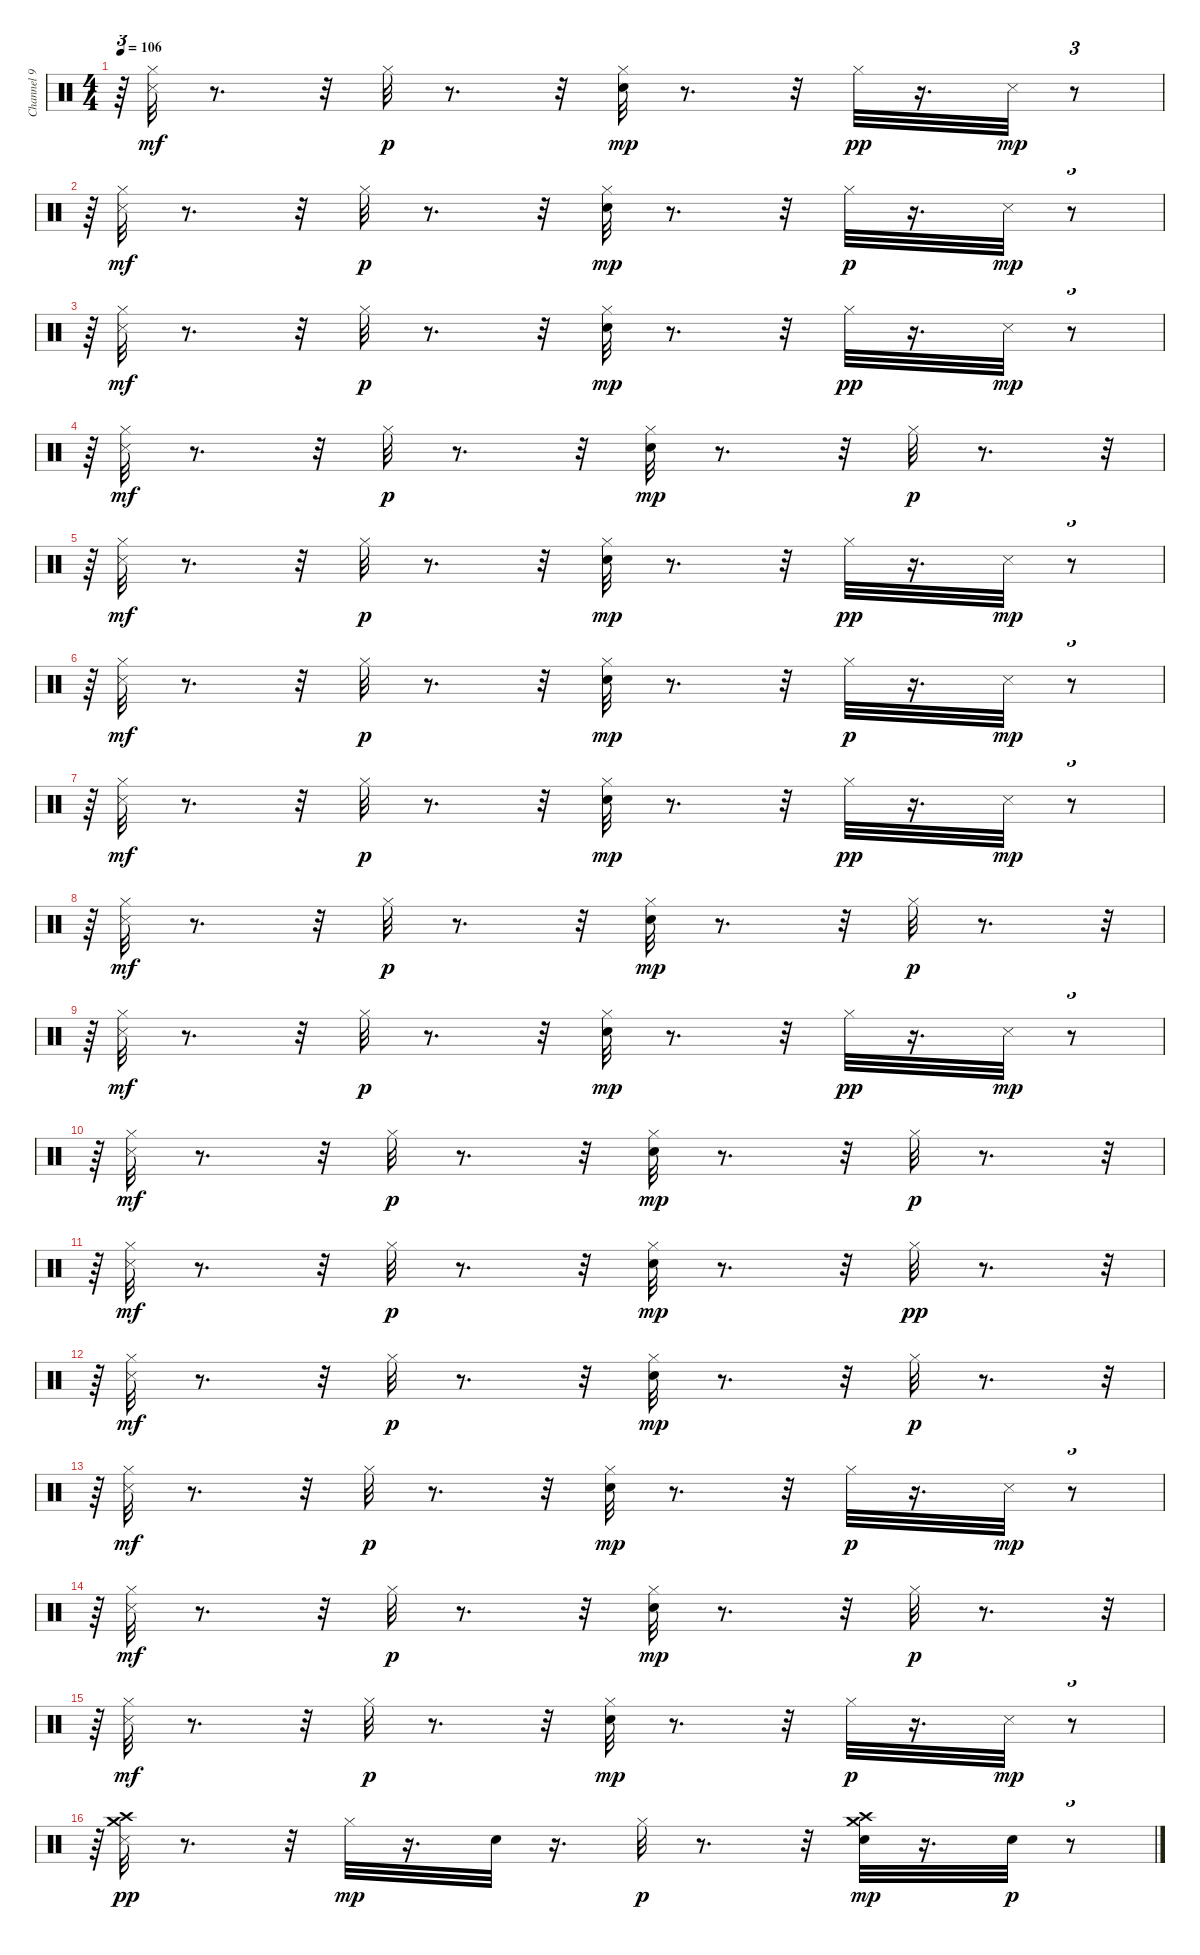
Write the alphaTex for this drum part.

\track ("Channel 9" "Channel 9") {instrument percussion}
\staff {score}
\articulation defaults
\ts (4 4)
\tempo 106
\clef neutral
\ks c
r.64{tu (3 2) dy pp} ("Hi-Hat (closed)" "Metronome (hit)").32{dy mf} r.8{d} r.32 "Hi-Hat (closed)".32{dy p} r.8{d} r.32 ("Hi-Hat (closed)" "Electric Snare (hit)").32{dy mp} r.8{d} r.32 "Hi-Hat (closed)".32{dy pp} r.16{d} "Metronome (hit)".32{dy mp} r.8{tu (3 2)} |
r.64{tu (3 2)} ("Hi-Hat (closed)" "Metronome (hit)").32{dy mf} r.8{d} r.32 "Hi-Hat (closed)".32{dy p} r.8{d} r.32 ("Hi-Hat (closed)" "Electric Snare (hit)").32{dy mp} r.8{d} r.32 "Hi-Hat (closed)".32{dy p} r.16{d} "Metronome (hit)".32{dy mp} r.8{tu (3 2)} |
r.64{tu (3 2)} ("Hi-Hat (closed)" "Metronome (hit)").32{dy mf} r.8{d} r.32 "Hi-Hat (closed)".32{dy p} r.8{d} r.32 ("Hi-Hat (closed)" "Electric Snare (hit)").32{dy mp} r.8{d} r.32 "Hi-Hat (closed)".32{dy pp} r.16{d} "Metronome (hit)".32{dy mp} r.8{tu (3 2)} |
r.64{tu (3 2)} ("Hi-Hat (closed)" "Metronome (hit)").32{dy mf} r.8{d} r.32 "Hi-Hat (closed)".32{dy p} r.8{d} r.32 ("Hi-Hat (closed)" "Electric Snare (hit)").32{dy mp} r.8{d} r.32 "Hi-Hat (closed)".32{dy p} r.8{d} r.32{tu (3 2)} |
r.64{tu (3 2)} ("Hi-Hat (closed)" "Metronome (hit)").32{dy mf} r.8{d} r.32 "Hi-Hat (closed)".32{dy p} r.8{d} r.32 ("Hi-Hat (closed)" "Electric Snare (hit)").32{dy mp} r.8{d} r.32 "Hi-Hat (closed)".32{dy pp} r.16{d} "Metronome (hit)".32{dy mp} r.8{tu (3 2)} |
r.64{tu (3 2)} ("Hi-Hat (closed)" "Metronome (hit)").32{dy mf} r.8{d} r.32 "Hi-Hat (closed)".32{dy p} r.8{d} r.32 ("Hi-Hat (closed)" "Electric Snare (hit)").32{dy mp} r.8{d} r.32 "Hi-Hat (closed)".32{dy p} r.16{d} "Metronome (hit)".32{dy mp} r.8{tu (3 2)} |
r.64{tu (3 2)} ("Hi-Hat (closed)" "Metronome (hit)").32{dy mf} r.8{d} r.32 "Hi-Hat (closed)".32{dy p} r.8{d} r.32 ("Hi-Hat (closed)" "Electric Snare (hit)").32{dy mp} r.8{d} r.32 "Hi-Hat (closed)".32{dy pp} r.16{d} "Metronome (hit)".32{dy mp} r.8{tu (3 2)} |
r.64{tu (3 2)} ("Hi-Hat (closed)" "Metronome (hit)").32{dy mf} r.8{d} r.32 "Hi-Hat (closed)".32{dy p} r.8{d} r.32 ("Hi-Hat (closed)" "Electric Snare (hit)").32{dy mp} r.8{d} r.32 "Hi-Hat (closed)".32{dy p} r.8{d} r.32{tu (3 2)} |
r.64{tu (3 2)} ("Hi-Hat (closed)" "Metronome (hit)").32{dy mf} r.8{d} r.32 "Hi-Hat (closed)".32{dy p} r.8{d} r.32 ("Hi-Hat (closed)" "Electric Snare (hit)").32{dy mp} r.8{d} r.32 "Hi-Hat (closed)".32{dy pp} r.16{d} "Metronome (hit)".32{dy mp} r.8{tu (3 2)} |
r.64{tu (3 2)} ("Hi-Hat (closed)" "Metronome (hit)").32{dy mf} r.8{d} r.32 "Hi-Hat (closed)".32{dy p} r.8{d} r.32 ("Hi-Hat (closed)" "Electric Snare (hit)").32{dy mp} r.8{d} r.32 "Hi-Hat (closed)".32{dy p} r.8{d} r.32{tu (3 2)} |
r.64{tu (3 2)} ("Hi-Hat (closed)" "Metronome (hit)").32{dy mf} r.8{d} r.32 "Hi-Hat (closed)".32{dy p} r.8{d} r.32 ("Hi-Hat (closed)" "Electric Snare (hit)").32{dy mp} r.8{d} r.32 "Hi-Hat (closed)".32{dy pp} r.8{d} r.32{tu (3 2)} |
r.64{tu (3 2)} ("Hi-Hat (closed)" "Metronome (hit)").32{dy mf} r.8{d} r.32 "Hi-Hat (closed)".32{dy p} r.8{d} r.32 ("Hi-Hat (closed)" "Electric Snare (hit)").32{dy mp} r.8{d} r.32 "Hi-Hat (closed)".32{dy p} r.8{d} r.32{tu (3 2)} |
r.64{tu (3 2)} ("Hi-Hat (closed)" "Metronome (hit)").32{dy mf} r.8{d} r.32 "Hi-Hat (closed)".32{dy p} r.8{d} r.32 ("Hi-Hat (closed)" "Electric Snare (hit)").32{dy mp} r.8{d} r.32 "Hi-Hat (closed)".32{dy p} r.16{d} "Metronome (hit)".32{dy mp} r.8{tu (3 2)} |
r.64{tu (3 2)} ("Hi-Hat (closed)" "Metronome (hit)").32{dy mf} r.8{d} r.32 "Hi-Hat (closed)".32{dy p} r.8{d} r.32 ("Hi-Hat (closed)" "Electric Snare (hit)").32{dy mp} r.8{d} r.32 "Hi-Hat (closed)".32{dy p} r.8{d} r.32{tu (3 2)} |
r.64{tu (3 2)} ("Hi-Hat (closed)" "Metronome (hit)").32{dy mf} r.8{d} r.32 "Hi-Hat (closed)".32{dy p} r.8{d} r.32 ("Hi-Hat (closed)" "Electric Snare (hit)").32{dy mp} r.8{d} r.32 "Hi-Hat (closed)".32{dy p} r.16{d} "Metronome (hit)".32{dy mp} r.8{tu (3 2)} |
r.64{tu (3 2)} ("Crash medium (hit)" "Metronome (hit)" "Crash high (hit)").32{dy pp} r.8{d} r.32 "Hi-Hat (closed)".32{dy mp} r.16{d} "Electric Snare (hit)".32 r.16{d} "Hi-Hat (closed)".32{dy p} r.8{d} r.32 ("Crash medium (hit)" "Crash high (hit)" "Electric Snare (hit)").32{dy mp} r.16{d} "Electric Snare (hit)".32{dy p} r.8{tu (3 2)}
